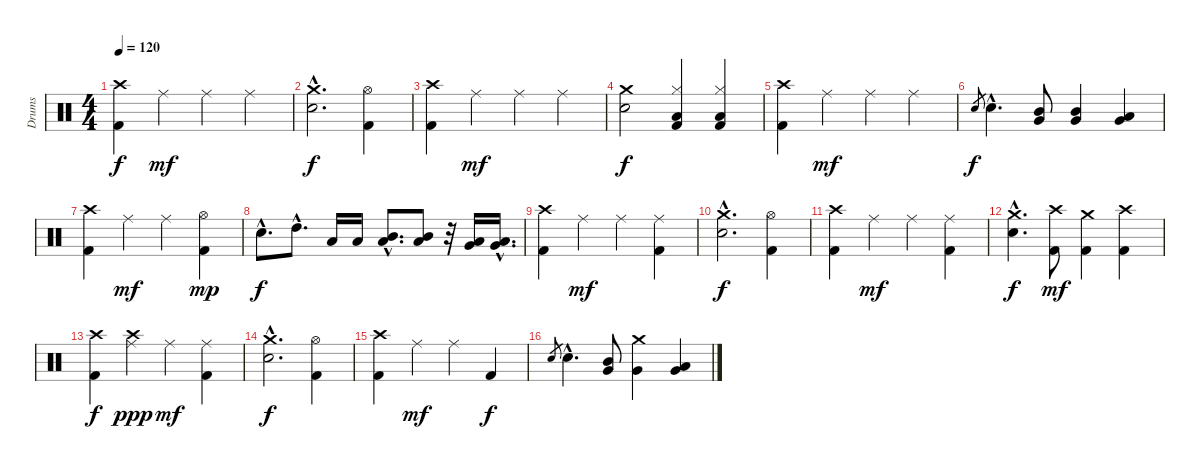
\track ("Drums" "Drums") {instrument percussion}
\staff {score}
\articulation defaults
\ts (4 4)
\tempo 120
\clef neutral
\ks c
("Crash high (hit)" "Kick (hit) 2").4{dy f} "Ride (middle)".4{dy mf} "Ride (middle)".4 "Ride (middle)".4 |
("Crash medium (hit)"{hac} "Snare (hit) 2"{hac}).2{d dy f} ("Hi-Hat (open)" "Kick (hit) 2").4 |
("Crash high (hit)" "Kick (hit) 2").4 "Ride (middle)".4{dy mf} "Ride (middle)".4 "Ride (middle)".4 |
("Crash medium (hit)" "Snare (hit) 2").2{dy f} ("Hi-Hat (closed)" "Low Floor Tom (hit)" "Kick (hit) 2").4 ("Hi-Hat (closed)" "Low Floor Tom (hit)" "Kick (hit) 2").4 |
("Crash high (hit)" "Kick (hit) 2").4 "Ride (middle)".4{dy mf} "Ride (middle)".4 "Ride (middle)".4 |
"Snare (hit) 2".8{gr dy f} "Snare (hit) 2"{hac}.4{d} ("Mid Tom (hit)" "Very Low Tom (hit)").8 ("Mid Tom (hit)" "Very Low Tom (hit)").4 ("Low Tom (hit)" "Very Low Tom (hit)").4 |
("Crash high (hit)" "Kick (hit) 2").4 "Ride (middle)".4{dy mf} "Ride (middle)".4 ("Hi-Hat (open)" "Kick (hit) 2").4{dy mp} |
"Snare (hit) 2"{hac}.8{d dy f} "High Tom (hit)"{hac}.8{d} "Low Tom (hit)".16 "Low Tom (hit)".16 ("Mid Tom (hit)"{hac} "Low Floor Tom (hit)"{hac}).8{d} ("Mid Tom (hit)" "Low Floor Tom (hit)").8 r.32 ("Very Low Tom (hit)" "Low Floor Tom (hit)").16 ("Very Low Tom (hit)"{hac} "Low Floor Tom (hit)"{hac}).16{d} |
("Crash high (hit)" "Kick (hit) 2").4 "Ride (middle)".4{dy mf} "Ride (middle)".4 ("Ride (middle)" "Kick (hit) 2").4 |
("Crash medium (hit)"{hac} "Snare (hit) 2"{hac}).2{d dy f} ("Hi-Hat (open)" "Kick (hit) 2").4 |
("Crash high (hit)" "Kick (hit) 2").4 "Ride (middle)".4{dy mf} "Ride (middle)".4 ("Ride (middle)" "Kick (hit) 2").4 |
("Crash medium (hit)"{hac} "Snare (hit) 2"{hac}).4{d dy f} ("Crash high (hit)" "Kick (hit) 2").8{dy mf} ("Crash medium (hit)" "Kick (hit) 2").4 ("Crash high (hit)" "Kick (hit) 2").4 |
("Crash high (hit)" "Kick (hit) 2").4{dy f} ("Ride (middle)" "Crash high (hit)").4{dy ppp} "Ride (middle)".4{dy mf} ("Ride (middle)" "Kick (hit) 2").4 |
("Crash medium (hit)"{hac} "Snare (hit) 2"{hac}).2{d dy f} ("Hi-Hat (open)" "Kick (hit) 2").4 |
("Crash high (hit)" "Kick (hit) 2").4 "Ride (middle)".4{dy mf} "Ride (middle)".4 "Kick (hit) 2".4{dy f} |
"Snare (hit) 2".8{gr} "Snare (hit) 2"{hac}.4{d} ("Mid Tom (hit)" "Very Low Tom (hit)").8 ("Crash medium (hit)" "Very Low Tom (hit)").4 ("Low Tom (hit)" "Very Low Tom (hit)").4
